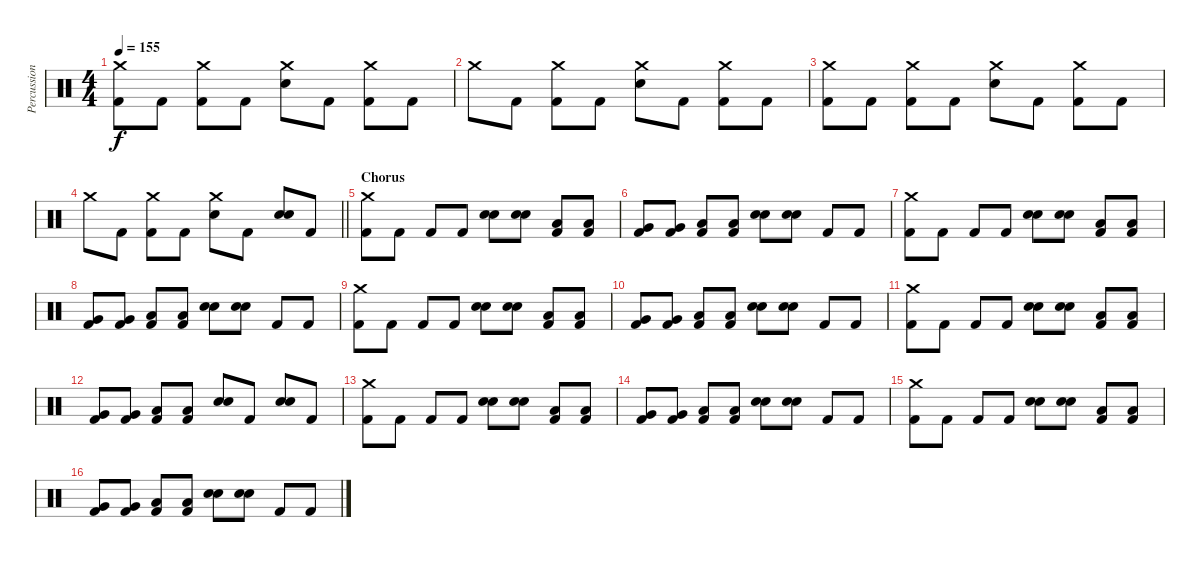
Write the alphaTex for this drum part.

\track ("Percussion" "Percussion") {instrument percussion}
\staff {score}
\articulation defaults
\ts (4 4)
\tempo 155
\clef neutral
\ks c
("Crash medium (hit)" "Kick (hit) 2").8{dy f} "Kick (hit) 2".8 ("Crash medium (hit)" "Kick (hit) 2").8 "Kick (hit) 2".8 ("Crash medium (hit)" "Electric Snare (hit)").8 "Kick (hit) 2".8 ("Crash medium (hit)" "Kick (hit) 2").8 "Kick (hit) 2".8 |
"Crash medium (hit)".8 "Kick (hit) 2".8 ("Crash medium (hit)" "Kick (hit) 2").8 "Kick (hit) 2".8 ("Crash medium (hit)" "Electric Snare (hit)").8 "Kick (hit) 2".8 ("Crash medium (hit)" "Kick (hit) 2").8 "Kick (hit) 2".8 |
("Crash medium (hit)" "Kick (hit) 2").8 "Kick (hit) 2".8 ("Crash medium (hit)" "Kick (hit) 2").8 "Kick (hit) 2".8 ("Crash medium (hit)" "Electric Snare (hit)").8 "Kick (hit) 2".8 ("Crash medium (hit)" "Kick (hit) 2").8 "Kick (hit) 2".8 |
\barLineRight lightlight "Crash medium (hit)".8 "Kick (hit) 2".8
("Crash medium (hit)" "Kick (hit) 2").8 "Kick (hit) 2".8 ("Crash medium (hit)" "Electric Snare (hit)").8 "Kick (hit) 2".8 ("Snare (hit) 2" "Electric Snare (hit)").8 "Kick (hit) 2".8 |
\section ("" "Chorus")
("Crash medium (hit)" "Kick (hit) 2").8 "Kick (hit) 2".8 "Kick (hit) 2".8 "Kick (hit) 2".8 ("Snare (hit) 2" "Electric Snare (hit)").8 ("Snare (hit) 2" "Electric Snare (hit)").8 ("Low Tom (hit)" "Kick (hit) 2").8 ("Low Tom (hit)" "Kick (hit) 2").8 |
("Very Low Tom (hit)" "Kick (hit) 2").8 ("Very Low Tom (hit)" "Kick (hit) 2").8 ("Low Floor Tom (hit)" "Kick (hit) 2").8 ("Low Floor Tom (hit)" "Kick (hit) 2").8 ("Snare (hit) 2" "Electric Snare (hit)").8 ("Snare (hit) 2" "Electric Snare (hit)").8 "Kick (hit) 2".8 "Kick (hit) 2".8 |
("Crash medium (hit)" "Kick (hit) 2").8 "Kick (hit) 2".8 "Kick (hit) 2".8 "Kick (hit) 2".8 ("Snare (hit) 2" "Electric Snare (hit)").8 ("Snare (hit) 2" "Electric Snare (hit)").8 ("Low Tom (hit)" "Kick (hit) 2").8 ("Low Tom (hit)" "Kick (hit) 2").8 |
("Very Low Tom (hit)" "Kick (hit) 2").8 ("Very Low Tom (hit)" "Kick (hit) 2").8 ("Low Floor Tom (hit)" "Kick (hit) 2").8 ("Low Floor Tom (hit)" "Kick (hit) 2").8 ("Snare (hit) 2" "Electric Snare (hit)").8 ("Snare (hit) 2" "Electric Snare (hit)").8 "Kick (hit) 2".8 "Kick (hit) 2".8 |
("Crash medium (hit)" "Kick (hit) 2").8 "Kick (hit) 2".8 "Kick (hit) 2".8 "Kick (hit) 2".8 ("Snare (hit) 2" "Electric Snare (hit)").8 ("Snare (hit) 2" "Electric Snare (hit)").8 ("Low Tom (hit)" "Kick (hit) 2").8 ("Low Tom (hit)" "Kick (hit) 2").8 |
("Very Low Tom (hit)" "Kick (hit) 2").8 ("Very Low Tom (hit)" "Kick (hit) 2").8 ("Low Floor Tom (hit)" "Kick (hit) 2").8 ("Low Floor Tom (hit)" "Kick (hit) 2").8 ("Snare (hit) 2" "Electric Snare (hit)").8 ("Snare (hit) 2" "Electric Snare (hit)").8 "Kick (hit) 2".8 "Kick (hit) 2".8 |
("Crash medium (hit)" "Kick (hit) 2").8 "Kick (hit) 2".8 "Kick (hit) 2".8 "Kick (hit) 2".8 ("Snare (hit) 2" "Electric Snare (hit)").8 ("Snare (hit) 2" "Electric Snare (hit)").8 ("Low Tom (hit)" "Kick (hit) 2").8 ("Low Tom (hit)" "Kick (hit) 2").8 |
("Very Low Tom (hit)" "Kick (hit) 2").8 ("Very Low Tom (hit)" "Kick (hit) 2").8 ("Low Floor Tom (hit)" "Kick (hit) 2").8 ("Low Floor Tom (hit)" "Kick (hit) 2").8 ("Snare (hit) 2" "Electric Snare (hit)").8 "Kick (hit) 2".8 ("Snare (hit) 2" "Electric Snare (hit)").8 "Kick (hit) 2".8 |
("Crash medium (hit)" "Kick (hit) 2").8 "Kick (hit) 2".8 "Kick (hit) 2".8 "Kick (hit) 2".8 ("Snare (hit) 2" "Electric Snare (hit)").8 ("Snare (hit) 2" "Electric Snare (hit)").8 ("Low Tom (hit)" "Kick (hit) 2").8 ("Low Tom (hit)" "Kick (hit) 2").8 |
("Very Low Tom (hit)" "Kick (hit) 2").8 ("Very Low Tom (hit)" "Kick (hit) 2").8 ("Low Floor Tom (hit)" "Kick (hit) 2").8 ("Low Floor Tom (hit)" "Kick (hit) 2").8 ("Snare (hit) 2" "Electric Snare (hit)").8 ("Snare (hit) 2" "Electric Snare (hit)").8 "Kick (hit) 2".8 "Kick (hit) 2".8 |
("Crash medium (hit)" "Kick (hit) 2").8 "Kick (hit) 2".8 "Kick (hit) 2".8 "Kick (hit) 2".8 ("Snare (hit) 2" "Electric Snare (hit)").8 ("Snare (hit) 2" "Electric Snare (hit)").8 ("Low Tom (hit)" "Kick (hit) 2").8 ("Low Tom (hit)" "Kick (hit) 2").8 |
("Very Low Tom (hit)" "Kick (hit) 2").8 ("Very Low Tom (hit)" "Kick (hit) 2").8 ("Low Floor Tom (hit)" "Kick (hit) 2").8 ("Low Floor Tom (hit)" "Kick (hit) 2").8 ("Snare (hit) 2" "Electric Snare (hit)").8 ("Snare (hit) 2" "Electric Snare (hit)").8 "Kick (hit) 2".8 "Kick (hit) 2".8
